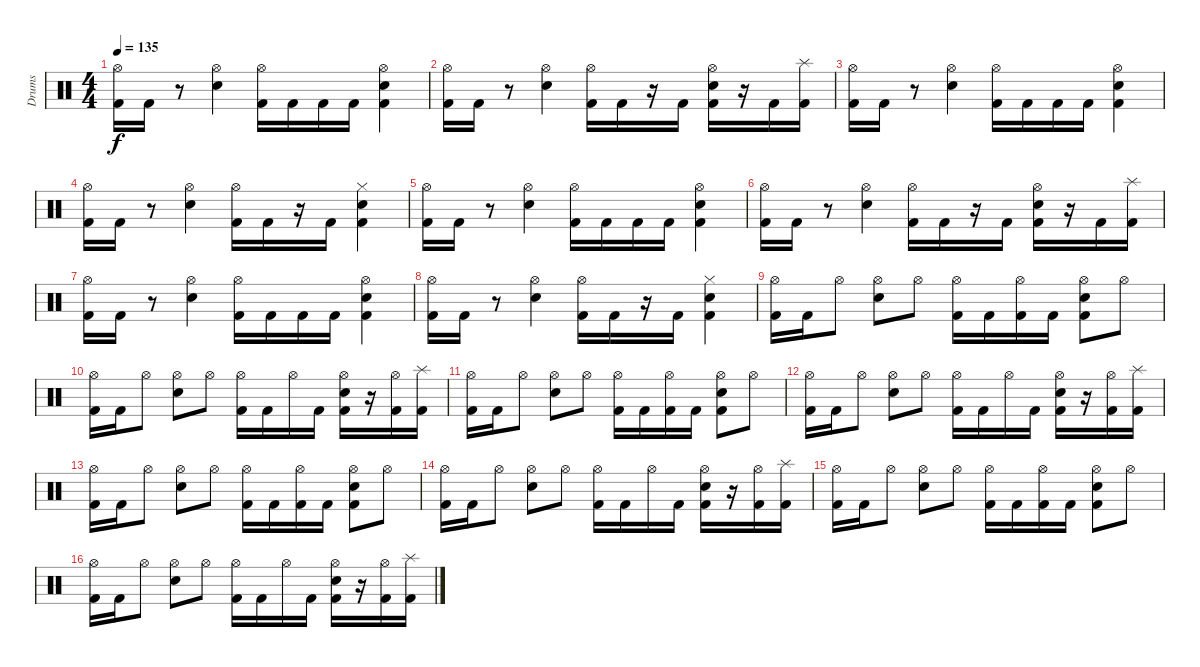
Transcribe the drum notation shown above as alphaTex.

\track ("Drums" "Drums") {instrument percussion}
\staff {score}
\articulation defaults
\ts (4 4)
\tempo 135
\clef neutral
\ks c
("Hi-Hat (open)" "Kick (hit) 2").16{dy f} "Kick (hit) 2".16 r.8 ("Hi-Hat (open)" "Snare (hit) 2").4 ("Hi-Hat (open)" "Kick (hit) 2").16 "Kick (hit) 2".16 "Kick (hit) 2".16 "Kick (hit) 2".16 ("Hi-Hat (open)" "Kick (hit) 2" "Snare (hit) 2").4 |
("Hi-Hat (open)" "Kick (hit) 2").16 "Kick (hit) 2".16 r.8 ("Hi-Hat (open)" "Snare (hit) 2").4 ("Hi-Hat (open)" "Kick (hit) 2").16 "Kick (hit) 2".16 r.16 "Kick (hit) 2".16 ("Hi-Hat (open)" "Kick (hit) 2" "Snare (hit) 2").16 r.16 "Kick (hit) 2".16 ("Splash (hit)" "Kick (hit) 2").16 |
("Hi-Hat (open)" "Kick (hit) 2").16 "Kick (hit) 2".16 r.8 ("Hi-Hat (open)" "Snare (hit) 2").4 ("Hi-Hat (open)" "Kick (hit) 2").16 "Kick (hit) 2".16 "Kick (hit) 2".16 "Kick (hit) 2".16 ("Hi-Hat (open)" "Kick (hit) 2" "Snare (hit) 2").4 |
("Hi-Hat (open)" "Kick (hit) 2").16 "Kick (hit) 2".16 r.8 ("Hi-Hat (open)" "Snare (hit) 2").4 ("Hi-Hat (open)" "Kick (hit) 2").16 "Kick (hit) 2".16 r.16 "Kick (hit) 2".16 ("Hi-Hat (closed)" "Kick (hit) 2" "Snare (hit) 2").4 |
("Hi-Hat (open)" "Kick (hit) 2").16 "Kick (hit) 2".16 r.8 ("Hi-Hat (open)" "Snare (hit) 2").4 ("Hi-Hat (open)" "Kick (hit) 2").16 "Kick (hit) 2".16 "Kick (hit) 2".16 "Kick (hit) 2".16 ("Hi-Hat (open)" "Kick (hit) 2" "Snare (hit) 2").4 |
("Hi-Hat (open)" "Kick (hit) 2").16 "Kick (hit) 2".16 r.8 ("Hi-Hat (open)" "Snare (hit) 2").4 ("Hi-Hat (open)" "Kick (hit) 2").16 "Kick (hit) 2".16 r.16 "Kick (hit) 2".16 ("Hi-Hat (open)" "Kick (hit) 2" "Snare (hit) 2").16 r.16 "Kick (hit) 2".16 ("Splash (hit)" "Kick (hit) 2").16 |
("Hi-Hat (open)" "Kick (hit) 2").16 "Kick (hit) 2".16 r.8 ("Hi-Hat (open)" "Snare (hit) 2").4 ("Hi-Hat (open)" "Kick (hit) 2").16 "Kick (hit) 2".16 "Kick (hit) 2".16 "Kick (hit) 2".16 ("Hi-Hat (open)" "Kick (hit) 2" "Snare (hit) 2").4 |
("Hi-Hat (open)" "Kick (hit) 2").16 "Kick (hit) 2".16 r.8 ("Hi-Hat (open)" "Snare (hit) 2").4 ("Hi-Hat (open)" "Kick (hit) 2").16 "Kick (hit) 2".16 r.16 "Kick (hit) 2".16 ("Hi-Hat (closed)" "Kick (hit) 2" "Snare (hit) 2").4 |
("Hi-Hat (open)" "Kick (hit) 2").16 "Kick (hit) 2".16 "Hi-Hat (open)".8 ("Hi-Hat (open)" "Snare (hit) 2").8 "Hi-Hat (open)".8 ("Hi-Hat (open)" "Kick (hit) 2").16 "Kick (hit) 2".16 ("Hi-Hat (open)" "Kick (hit) 2").16 "Kick (hit) 2".16 ("Hi-Hat (open)" "Kick (hit) 2" "Snare (hit) 2").8 "Hi-Hat (open)".8 |
("Hi-Hat (open)" "Kick (hit) 2").16 "Kick (hit) 2".16 "Hi-Hat (open)".8 ("Hi-Hat (open)" "Snare (hit) 2").8 "Hi-Hat (open)".8 ("Hi-Hat (open)" "Kick (hit) 2").16 "Kick (hit) 2".16 "Hi-Hat (open)".16 "Kick (hit) 2".16 ("Hi-Hat (open)" "Kick (hit) 2" "Snare (hit) 2").16 r.16 ("Hi-Hat (open)" "Kick (hit) 2").16 ("Splash (hit)" "Kick (hit) 2").16 |
("Hi-Hat (open)" "Kick (hit) 2").16 "Kick (hit) 2".16 "Hi-Hat (open)".8 ("Hi-Hat (open)" "Snare (hit) 2").8 "Hi-Hat (open)".8 ("Hi-Hat (open)" "Kick (hit) 2").16 "Kick (hit) 2".16 ("Hi-Hat (open)" "Kick (hit) 2").16 "Kick (hit) 2".16 ("Hi-Hat (open)" "Kick (hit) 2" "Snare (hit) 2").8 "Hi-Hat (open)".8 |
("Hi-Hat (open)" "Kick (hit) 2").16 "Kick (hit) 2".16 "Hi-Hat (open)".8 ("Hi-Hat (open)" "Snare (hit) 2").8 "Hi-Hat (open)".8 ("Hi-Hat (open)" "Kick (hit) 2").16 "Kick (hit) 2".16 "Hi-Hat (open)".16 "Kick (hit) 2".16 ("Hi-Hat (open)" "Kick (hit) 2" "Snare (hit) 2").16 r.16 ("Hi-Hat (open)" "Kick (hit) 2").16 ("Splash (hit)" "Kick (hit) 2").16 |
("Hi-Hat (open)" "Kick (hit) 2").16 "Kick (hit) 2".16 "Hi-Hat (open)".8 ("Hi-Hat (open)" "Snare (hit) 2").8 "Hi-Hat (open)".8 ("Hi-Hat (open)" "Kick (hit) 2").16 "Kick (hit) 2".16 ("Hi-Hat (open)" "Kick (hit) 2").16 "Kick (hit) 2".16 ("Hi-Hat (open)" "Kick (hit) 2" "Snare (hit) 2").8 "Hi-Hat (open)".8 |
("Hi-Hat (open)" "Kick (hit) 2").16 "Kick (hit) 2".16 "Hi-Hat (open)".8 ("Hi-Hat (open)" "Snare (hit) 2").8 "Hi-Hat (open)".8 ("Hi-Hat (open)" "Kick (hit) 2").16 "Kick (hit) 2".16 "Hi-Hat (open)".16 "Kick (hit) 2".16 ("Hi-Hat (open)" "Kick (hit) 2" "Snare (hit) 2").16 r.16 ("Hi-Hat (open)" "Kick (hit) 2").16 ("Splash (hit)" "Kick (hit) 2").16 |
("Hi-Hat (open)" "Kick (hit) 2").16 "Kick (hit) 2".16 "Hi-Hat (open)".8 ("Hi-Hat (open)" "Snare (hit) 2").8 "Hi-Hat (open)".8 ("Hi-Hat (open)" "Kick (hit) 2").16 "Kick (hit) 2".16 ("Hi-Hat (open)" "Kick (hit) 2").16 "Kick (hit) 2".16 ("Hi-Hat (open)" "Kick (hit) 2" "Snare (hit) 2").8 "Hi-Hat (open)".8 |
("Hi-Hat (open)" "Kick (hit) 2").16 "Kick (hit) 2".16 "Hi-Hat (open)".8 ("Hi-Hat (open)" "Snare (hit) 2").8 "Hi-Hat (open)".8 ("Hi-Hat (open)" "Kick (hit) 2").16 "Kick (hit) 2".16 "Hi-Hat (open)".16 "Kick (hit) 2".16 ("Hi-Hat (open)" "Kick (hit) 2" "Snare (hit) 2").16 r.16 ("Hi-Hat (open)" "Kick (hit) 2").16 ("Splash (hit)" "Kick (hit) 2").16
